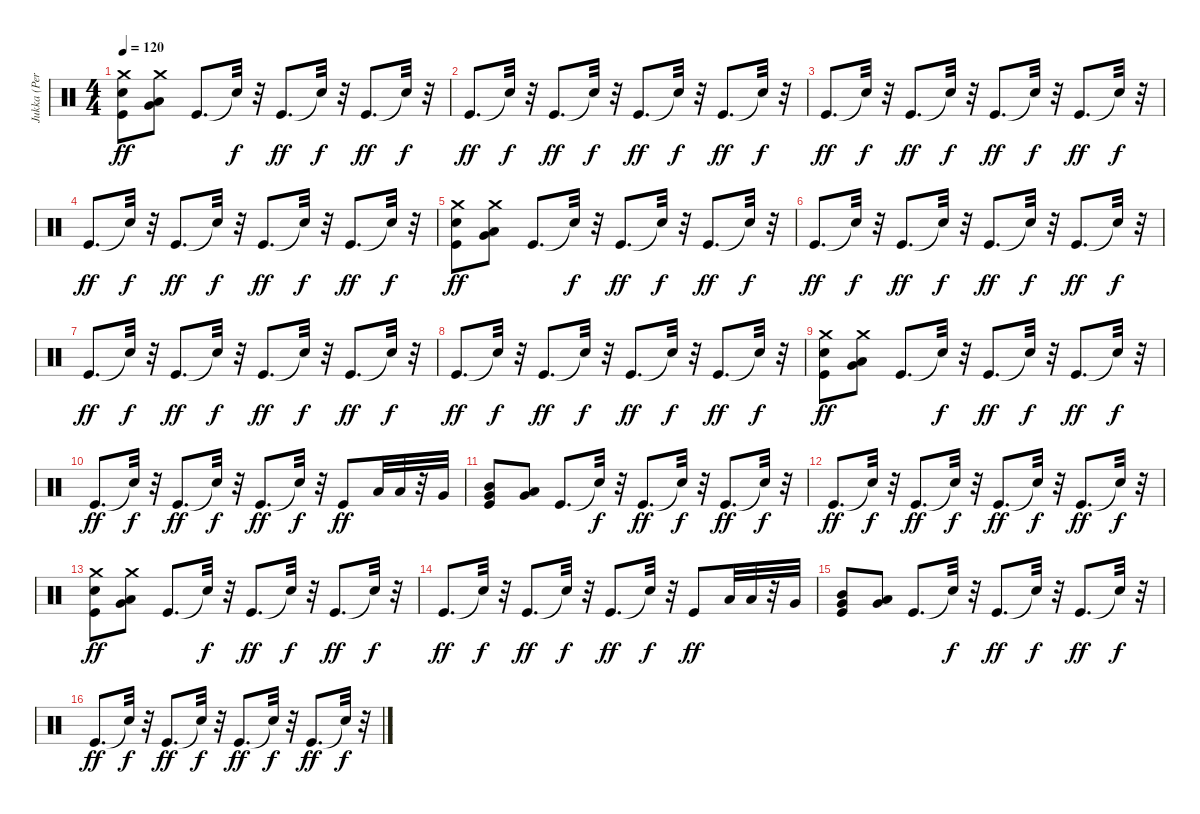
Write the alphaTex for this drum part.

\track ("Jukka (Percussion)" "Jukka (Per") {instrument percussion}
\staff {score}
\articulation defaults
\ts (4 4)
\tempo 120
\clef neutral
\ks c
("Kick (hit)" "Electric Snare (hit)" "Crash medium (hit)").8{dy ff} ("Very Low Tom (hit)" "Low Tom (hit)" "Crash medium (hit)").8 "Kick (hit)".8{d} "Snare (hit)"{t}.32{dy f} r.32 "Kick (hit)".8{d dy ff} "Snare (hit)"{t}.32{dy f} r.32 "Kick (hit)".8{d dy ff} "Snare (hit)"{t}.32{dy f} r.32 |
"Kick (hit)".8{d dy ff} "Snare (hit)"{t}.32{dy f} r.32 "Kick (hit)".8{d dy ff} "Snare (hit)"{t}.32{dy f} r.32 "Kick (hit)".8{d dy ff} "Snare (hit)"{t}.32{dy f} r.32 "Kick (hit)".8{d dy ff} "Snare (hit)"{t}.32{dy f} r.32 |
"Kick (hit)".8{d dy ff} "Snare (hit)"{t}.32{dy f} r.32 "Kick (hit)".8{d dy ff} "Snare (hit)"{t}.32{dy f} r.32 "Kick (hit)".8{d dy ff} "Snare (hit)"{t}.32{dy f} r.32 "Kick (hit)".8{d dy ff} "Snare (hit)"{t}.32{dy f} r.32 |
"Kick (hit)".8{d dy ff} "Snare (hit)"{t}.32{dy f} r.32 "Kick (hit)".8{d dy ff} "Snare (hit)"{t}.32{dy f} r.32 "Kick (hit)".8{d dy ff} "Snare (hit)"{t}.32{dy f} r.32 "Kick (hit)".8{d dy ff} "Snare (hit)"{t}.32{dy f} r.32 |
("Kick (hit)" "Electric Snare (hit)" "Crash medium (hit)").8{dy ff} ("Very Low Tom (hit)" "Low Tom (hit)" "Crash medium (hit)").8 "Kick (hit)".8{d} "Snare (hit)"{t}.32{dy f} r.32 "Kick (hit)".8{d dy ff} "Snare (hit)"{t}.32{dy f} r.32 "Kick (hit)".8{d dy ff} "Snare (hit)"{t}.32{dy f} r.32 |
"Kick (hit)".8{d dy ff} "Snare (hit)"{t}.32{dy f} r.32 "Kick (hit)".8{d dy ff} "Snare (hit)"{t}.32{dy f} r.32 "Kick (hit)".8{d dy ff} "Snare (hit)"{t}.32{dy f} r.32 "Kick (hit)".8{d dy ff} "Snare (hit)"{t}.32{dy f} r.32 |
"Kick (hit)".8{d dy ff} "Snare (hit)"{t}.32{dy f} r.32 "Kick (hit)".8{d dy ff} "Snare (hit)"{t}.32{dy f} r.32 "Kick (hit)".8{d dy ff} "Snare (hit)"{t}.32{dy f} r.32 "Kick (hit)".8{d dy ff} "Snare (hit)"{t}.32{dy f} r.32 |
"Kick (hit)".8{d dy ff} "Snare (hit)"{t}.32{dy f} r.32 "Kick (hit)".8{d dy ff} "Snare (hit)"{t}.32{dy f} r.32 "Kick (hit)".8{d dy ff} "Snare (hit)"{t}.32{dy f} r.32 "Kick (hit)".8{d dy ff} "Snare (hit)"{t}.32{dy f} r.32 |
("Kick (hit)" "Electric Snare (hit)" "Crash medium (hit)").8{dy ff} ("Very Low Tom (hit)" "Low Tom (hit)" "Crash medium (hit)").8 "Kick (hit)".8{d} "Snare (hit)"{t}.32{dy f} r.32 "Kick (hit)".8{d dy ff} "Snare (hit)"{t}.32{dy f} r.32 "Kick (hit)".8{d dy ff} "Snare (hit)"{t}.32{dy f} r.32 |
"Kick (hit)".8{d dy ff} "Snare (hit)"{t}.32{dy f} r.32 "Kick (hit)".8{d dy ff} "Snare (hit)"{t}.32{dy f} r.32 "Kick (hit)".8{d dy ff} "Snare (hit)"{t}.32{dy f} r.32 "Kick (hit)".8{dy ff} "Low Tom (hit)".32 "Low Tom (hit)".32 r.32 "Very Low Tom (hit)".32 |
("Kick (hit)" "Very Low Tom (hit)" "Mid Tom (hit)").8 ("Very Low Tom (hit)" "Low Tom (hit)").8 "Kick (hit)".8{d} "Snare (hit)"{t}.32{dy f} r.32 "Kick (hit)".8{d dy ff} "Snare (hit)"{t}.32{dy f} r.32 "Kick (hit)".8{d dy ff} "Snare (hit)"{t}.32{dy f} r.32 |
"Kick (hit)".8{d dy ff} "Snare (hit)"{t}.32{dy f} r.32 "Kick (hit)".8{d dy ff} "Snare (hit)"{t}.32{dy f} r.32 "Kick (hit)".8{d dy ff} "Snare (hit)"{t}.32{dy f} r.32 "Kick (hit)".8{d dy ff} "Snare (hit)"{t}.32{dy f} r.32 |
("Kick (hit)" "Electric Snare (hit)" "Crash medium (hit)").8{dy ff} ("Very Low Tom (hit)" "Low Tom (hit)" "Crash medium (hit)").8 "Kick (hit)".8{d} "Snare (hit)"{t}.32{dy f} r.32 "Kick (hit)".8{d dy ff} "Snare (hit)"{t}.32{dy f} r.32 "Kick (hit)".8{d dy ff} "Snare (hit)"{t}.32{dy f} r.32 |
"Kick (hit)".8{d dy ff} "Snare (hit)"{t}.32{dy f} r.32 "Kick (hit)".8{d dy ff} "Snare (hit)"{t}.32{dy f} r.32 "Kick (hit)".8{d dy ff} "Snare (hit)"{t}.32{dy f} r.32 "Kick (hit)".8{dy ff} "Low Tom (hit)".32 "Low Tom (hit)".32 r.32 "Very Low Tom (hit)".32 |
("Kick (hit)" "Very Low Tom (hit)" "Mid Tom (hit)").8 ("Very Low Tom (hit)" "Low Tom (hit)").8 "Kick (hit)".8{d} "Snare (hit)"{t}.32{dy f} r.32 "Kick (hit)".8{d dy ff} "Snare (hit)"{t}.32{dy f} r.32 "Kick (hit)".8{d dy ff} "Snare (hit)"{t}.32{dy f} r.32 |
"Kick (hit)".8{d dy ff} "Snare (hit)"{t}.32{dy f} r.32 "Kick (hit)".8{d dy ff} "Snare (hit)"{t}.32{dy f} r.32 "Kick (hit)".8{d dy ff} "Snare (hit)"{t}.32{dy f} r.32 "Kick (hit)".8{d dy ff} "Snare (hit)"{t}.32{dy f} r.32
